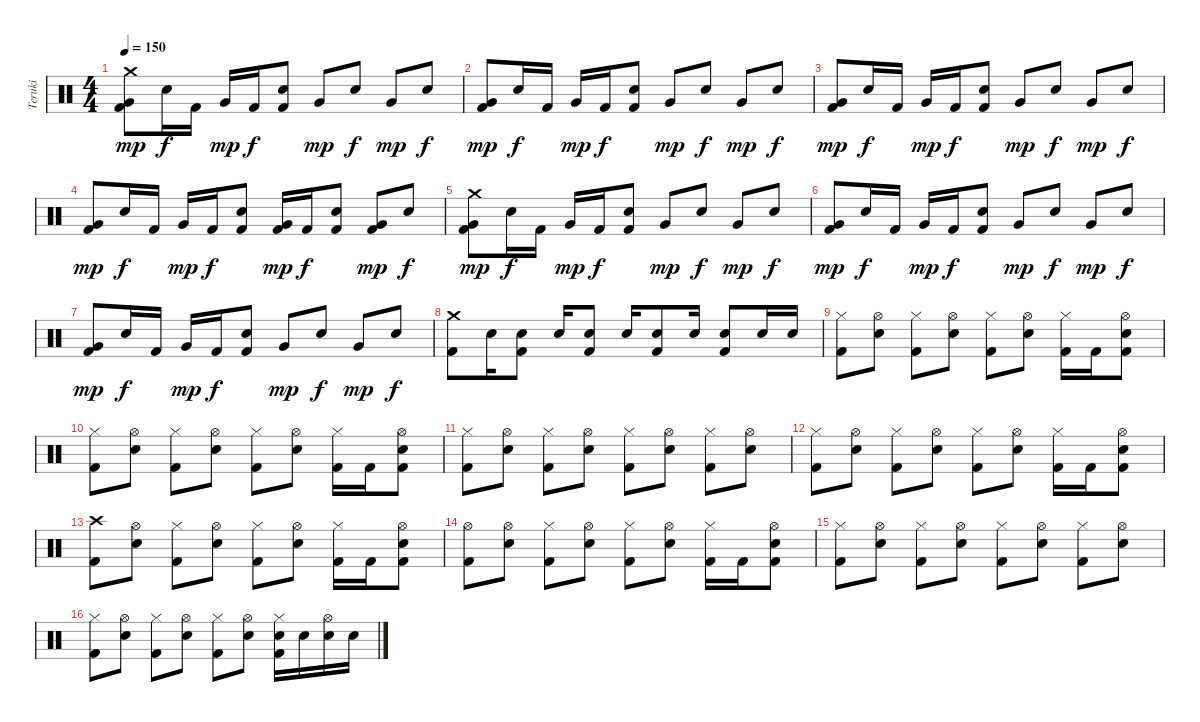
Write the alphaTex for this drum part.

\track ("Teruki" "Teruki") {instrument percussion}
\staff {score}
\articulation defaults
\ts (4 4)
\tempo 150
\clef neutral
\ks c
("Crash medium (hit)" "Kick (hit) 2" "Very Low Tom (hit)").8{dy mp} "Electric Snare (hit)".16{dy f} "Kick (hit) 2".16 "Very Low Tom (hit)".16{dy mp} "Kick (hit) 2".16{dy f} ("Electric Snare (hit)" "Kick (hit) 2").8 "Very Low Tom (hit)".8{dy mp} "Electric Snare (hit)".8{dy f} "Very Low Tom (hit)".8{dy mp} "Electric Snare (hit)".8{dy f} |
("Kick (hit) 2" "Very Low Tom (hit)").8{dy mp} "Electric Snare (hit)".16{dy f} "Kick (hit) 2".16 "Very Low Tom (hit)".16{dy mp} "Kick (hit) 2".16{dy f} ("Electric Snare (hit)" "Kick (hit) 2").8 "Very Low Tom (hit)".8{dy mp} "Electric Snare (hit)".8{dy f} "Very Low Tom (hit)".8{dy mp} "Electric Snare (hit)".8{dy f} |
("Kick (hit) 2" "Very Low Tom (hit)").8{dy mp} "Electric Snare (hit)".16{dy f} "Kick (hit) 2".16 "Very Low Tom (hit)".16{dy mp} "Kick (hit) 2".16{dy f} ("Electric Snare (hit)" "Kick (hit) 2").8 "Very Low Tom (hit)".8{dy mp} "Electric Snare (hit)".8{dy f} "Very Low Tom (hit)".8{dy mp} "Electric Snare (hit)".8{dy f} |
("Kick (hit) 2" "Very Low Tom (hit)").8{dy mp} "Electric Snare (hit)".16{dy f} "Kick (hit) 2".16 "Very Low Tom (hit)".16{dy mp} "Kick (hit) 2".16{dy f} ("Electric Snare (hit)" "Kick (hit) 2").8 ("Kick (hit) 2" "Very Low Tom (hit)").16{dy mp} "Kick (hit) 2".16{dy f} ("Electric Snare (hit)" "Kick (hit) 2").8 ("Kick (hit) 2" "Very Low Tom (hit)").8{dy mp} "Electric Snare (hit)".8{dy f} |
("Crash medium (hit)" "Kick (hit) 2" "Very Low Tom (hit)").8{dy mp} "Electric Snare (hit)".16{dy f} "Kick (hit) 2".16 "Very Low Tom (hit)".16{dy mp} "Kick (hit) 2".16{dy f} ("Electric Snare (hit)" "Kick (hit) 2").8 "Very Low Tom (hit)".8{dy mp} "Electric Snare (hit)".8{dy f} "Very Low Tom (hit)".8{dy mp} "Electric Snare (hit)".8{dy f} |
("Kick (hit) 2" "Very Low Tom (hit)").8{dy mp} "Electric Snare (hit)".16{dy f} "Kick (hit) 2".16 "Very Low Tom (hit)".16{dy mp} "Kick (hit) 2".16{dy f} ("Electric Snare (hit)" "Kick (hit) 2").8 "Very Low Tom (hit)".8{dy mp} "Electric Snare (hit)".8{dy f} "Very Low Tom (hit)".8{dy mp} "Electric Snare (hit)".8{dy f} |
("Kick (hit) 2" "Very Low Tom (hit)").8{dy mp} "Electric Snare (hit)".16{dy f} "Kick (hit) 2".16 "Very Low Tom (hit)".16{dy mp} "Kick (hit) 2".16{dy f} ("Electric Snare (hit)" "Kick (hit) 2").8 "Very Low Tom (hit)".8{dy mp} "Electric Snare (hit)".8{dy f} "Very Low Tom (hit)".8{dy mp} "Electric Snare (hit)".8{dy f} |
("Crash medium (hit)" "Kick (hit) 2").8 "Electric Snare (hit)".16 ("Electric Snare (hit)" "Kick (hit) 2").8 "Electric Snare (hit)".16 ("Electric Snare (hit)" "Kick (hit) 2").8 "Electric Snare (hit)".16 ("Electric Snare (hit)" "Kick (hit) 2").8 "Electric Snare (hit)".16 ("Electric Snare (hit)" "Kick (hit) 2").8 "Electric Snare (hit)".16 "Electric Snare (hit)".16 |
("Hi-Hat (closed)" "Kick (hit) 2").8 ("Hi-Hat (open)" "Electric Snare (hit)").8 ("Hi-Hat (closed)" "Kick (hit) 2").8 ("Hi-Hat (open)" "Electric Snare (hit)").8 ("Hi-Hat (closed)" "Kick (hit) 2").8 ("Hi-Hat (open)" "Electric Snare (hit)").8 ("Hi-Hat (closed)" "Kick (hit) 2").16 "Kick (hit) 2".16 ("Hi-Hat (open)" "Electric Snare (hit)" "Kick (hit) 2").8 |
("Hi-Hat (closed)" "Kick (hit) 2").8 ("Hi-Hat (open)" "Electric Snare (hit)").8 ("Hi-Hat (closed)" "Kick (hit) 2").8 ("Hi-Hat (open)" "Electric Snare (hit)").8 ("Hi-Hat (closed)" "Kick (hit) 2").8 ("Hi-Hat (open)" "Electric Snare (hit)").8 ("Hi-Hat (closed)" "Kick (hit) 2").16 "Kick (hit) 2".16 ("Hi-Hat (open)" "Electric Snare (hit)" "Kick (hit) 2").8 |
("Hi-Hat (closed)" "Kick (hit) 2").8 ("Hi-Hat (open)" "Electric Snare (hit)").8 ("Hi-Hat (closed)" "Kick (hit) 2").8 ("Hi-Hat (open)" "Electric Snare (hit)").8 ("Hi-Hat (closed)" "Kick (hit) 2").8 ("Hi-Hat (open)" "Electric Snare (hit)").8 ("Hi-Hat (closed)" "Kick (hit) 2").8 ("Hi-Hat (open)" "Electric Snare (hit)").8 |
("Hi-Hat (closed)" "Kick (hit) 2").8 ("Hi-Hat (open)" "Electric Snare (hit)").8 ("Hi-Hat (closed)" "Kick (hit) 2").8 ("Hi-Hat (open)" "Electric Snare (hit)").8 ("Hi-Hat (closed)" "Kick (hit) 2").8 ("Hi-Hat (open)" "Electric Snare (hit)").8 ("Hi-Hat (closed)" "Kick (hit) 2").16 "Kick (hit) 2".16 ("Hi-Hat (open)" "Electric Snare (hit)" "Kick (hit) 2").8 |
("Crash high (hit)" "Kick (hit) 2").8 ("Hi-Hat (open)" "Electric Snare (hit)").8 ("Hi-Hat (closed)" "Kick (hit) 2").8 ("Hi-Hat (open)" "Electric Snare (hit)").8 ("Hi-Hat (closed)" "Kick (hit) 2").8 ("Hi-Hat (open)" "Electric Snare (hit)").8 ("Hi-Hat (closed)" "Kick (hit) 2").16 "Kick (hit) 2".16 ("Hi-Hat (open)" "Electric Snare (hit)" "Kick (hit) 2").8 |
("Hi-Hat (open)" "Kick (hit) 2").8 ("Hi-Hat (open)" "Electric Snare (hit)").8 ("Hi-Hat (closed)" "Kick (hit) 2").8 ("Hi-Hat (open)" "Electric Snare (hit)").8 ("Hi-Hat (closed)" "Kick (hit) 2").8 ("Hi-Hat (open)" "Electric Snare (hit)").8 ("Hi-Hat (closed)" "Kick (hit) 2").16 "Kick (hit) 2".16 ("Hi-Hat (open)" "Electric Snare (hit)" "Kick (hit) 2").8 |
("Hi-Hat (closed)" "Kick (hit) 2").8 ("Hi-Hat (open)" "Electric Snare (hit)").8 ("Hi-Hat (closed)" "Kick (hit) 2").8 ("Hi-Hat (open)" "Electric Snare (hit)").8 ("Hi-Hat (closed)" "Kick (hit) 2").8 ("Hi-Hat (open)" "Electric Snare (hit)").8 ("Hi-Hat (closed)" "Kick (hit) 2").8 ("Hi-Hat (open)" "Electric Snare (hit)").8 |
("Hi-Hat (closed)" "Kick (hit) 2").8 ("Hi-Hat (open)" "Electric Snare (hit)").8 ("Hi-Hat (closed)" "Kick (hit) 2").8 ("Hi-Hat (open)" "Electric Snare (hit)").8 ("Hi-Hat (closed)" "Kick (hit) 2").8 ("Hi-Hat (open)" "Electric Snare (hit)").8 ("Hi-Hat (closed)" "Electric Snare (hit)" "Kick (hit) 2").16 "Electric Snare (hit)".16 ("Hi-Hat (open)" "Electric Snare (hit)").16 "Electric Snare (hit)".16
